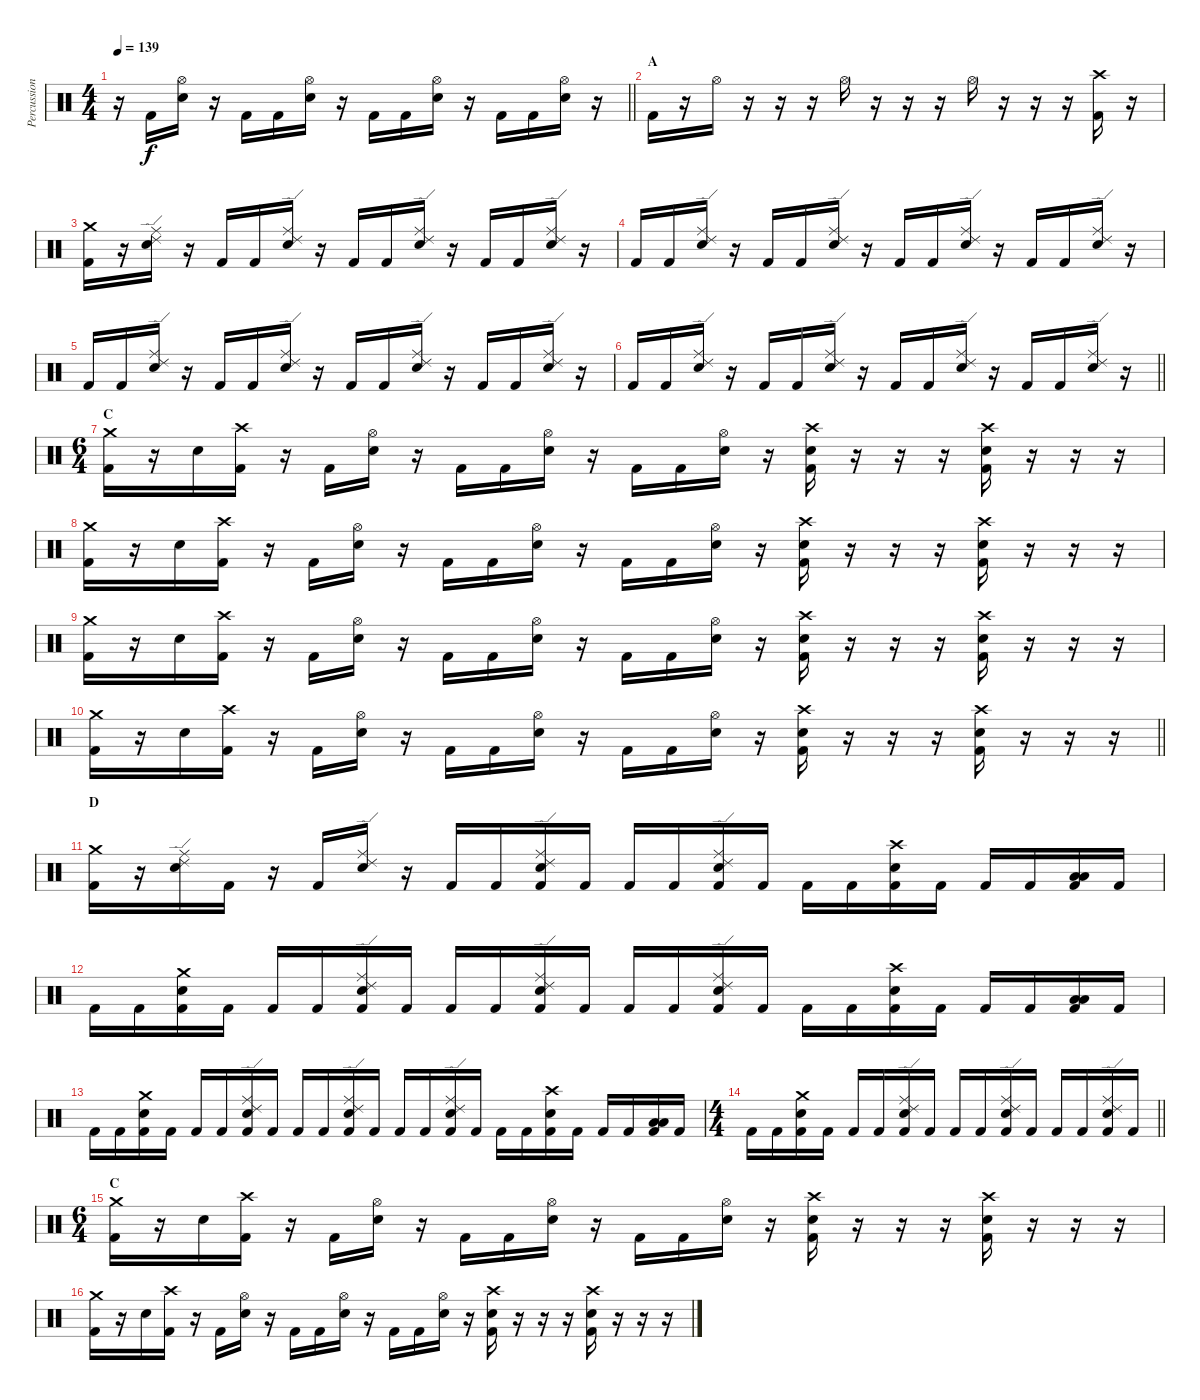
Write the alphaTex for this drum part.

\track ("Percussion" "Percussion") {instrument percussion}
\staff {score}
\articulation defaults
\ts (4 4)
\tempo 139
\clef neutral
\barLineRight lightlight
\ks c
r.16{dy f} "Kick (hit) 2".16 ("Hi-Hat (open)" "Electric Snare (hit)").16 r.16 "Kick (hit) 2".16 "Kick (hit) 2".16 ("Hi-Hat (open)" "Electric Snare (hit)").16 r.16 "Kick (hit) 2".16 "Kick (hit) 2".16 ("Hi-Hat (open)" "Electric Snare (hit)").16 r.16 "Kick (hit) 2".16 "Kick (hit) 2".16 ("Hi-Hat (open)" "Electric Snare (hit)").16 r.16 |
\section ("" "A")
"Kick (hit) 2".16 r.16 "Hi-Hat (open)".16 r.16 r.16 r.16 "Hi-Hat (open)".16 r.16 r.16 r.16 "Hi-Hat (open)".16 r.16 r.16 r.16 ("Crash high (hit)" "Kick (hit) 2").16 r.16 |
("Crash medium (hit)" "Kick (hit) 2").16 r.16 ("Ride (middle)" "Ride (edge) 2" "Electric Snare (hit)").16 r.16 "Kick (hit) 2".16 "Kick (hit) 2".16 ("Ride (middle)" "Ride (edge) 2" "Electric Snare (hit)").16 r.16 "Kick (hit) 2".16 "Kick (hit) 2".16 ("Ride (middle)" "Ride (edge) 2" "Electric Snare (hit)").16 r.16 "Kick (hit) 2".16 "Kick (hit) 2".16 ("Ride (middle)" "Ride (edge) 2" "Electric Snare (hit)").16 r.16 |
"Kick (hit) 2".16 "Kick (hit) 2".16 ("Ride (middle)" "Ride (edge) 2" "Electric Snare (hit)").16 r.16 "Kick (hit) 2".16 "Kick (hit) 2".16 ("Ride (middle)" "Ride (edge) 2" "Electric Snare (hit)").16 r.16 "Kick (hit) 2".16 "Kick (hit) 2".16 ("Ride (middle)" "Ride (edge) 2" "Electric Snare (hit)").16 r.16 "Kick (hit) 2".16 "Kick (hit) 2".16 ("Ride (middle)" "Ride (edge) 2" "Electric Snare (hit)").16 r.16 |
"Kick (hit) 2".16 "Kick (hit) 2".16 ("Ride (middle)" "Ride (edge) 2" "Electric Snare (hit)").16 r.16 "Kick (hit) 2".16 "Kick (hit) 2".16 ("Ride (middle)" "Ride (edge) 2" "Electric Snare (hit)").16 r.16 "Kick (hit) 2".16 "Kick (hit) 2".16 ("Ride (middle)" "Ride (edge) 2" "Electric Snare (hit)").16 r.16 "Kick (hit) 2".16 "Kick (hit) 2".16 ("Ride (middle)" "Ride (edge) 2" "Electric Snare (hit)").16 r.16 |
\barLineRight lightlight "Kick (hit) 2".16 "Kick (hit) 2".16
("Ride (middle)" "Ride (edge) 2" "Electric Snare (hit)").16 r.16 "Kick (hit) 2".16 "Kick (hit) 2".16 ("Ride (middle)" "Ride (edge) 2" "Electric Snare (hit)").16 r.16 "Kick (hit) 2".16 "Kick (hit) 2".16 ("Ride (middle)" "Ride (edge) 2" "Electric Snare (hit)").16 r.16 "Kick (hit) 2".16 "Kick (hit) 2".16 ("Ride (middle)" "Ride (edge) 2" "Electric Snare (hit)").16 r.16 |
\ts (6 4)
\section ("" "C")
("Crash medium (hit)" "Kick (hit) 2").16 r.16 "Electric Snare (hit)".16 ("Crash high (hit)" "Kick (hit) 2").16 r.16 "Kick (hit) 2".16 ("Hi-Hat (open)" "Electric Snare (hit)").16 r.16 "Kick (hit) 2".16 "Kick (hit) 2".16 ("Hi-Hat (open)" "Electric Snare (hit)").16 r.16 "Kick (hit) 2".16 "Kick (hit) 2".16 ("Hi-Hat (open)" "Electric Snare (hit)").16 r.16 ("Crash high (hit)" "Electric Snare (hit)" "Kick (hit) 2").16 r.16 r.16 r.16 ("Crash high (hit)" "Electric Snare (hit)" "Kick (hit) 2").16 r.16 r.16 r.16 |
("Crash medium (hit)" "Kick (hit) 2").16 r.16 "Electric Snare (hit)".16 ("Crash high (hit)" "Kick (hit) 2").16 r.16 "Kick (hit) 2".16 ("Hi-Hat (open)" "Electric Snare (hit)").16 r.16 "Kick (hit) 2".16 "Kick (hit) 2".16 ("Hi-Hat (open)" "Electric Snare (hit)").16 r.16 "Kick (hit) 2".16 "Kick (hit) 2".16 ("Hi-Hat (open)" "Electric Snare (hit)").16 r.16 ("Crash high (hit)" "Electric Snare (hit)" "Kick (hit) 2").16 r.16 r.16 r.16 ("Crash high (hit)" "Electric Snare (hit)" "Kick (hit) 2").16 r.16 r.16 r.16 |
("Crash medium (hit)" "Kick (hit) 2").16 r.16 "Electric Snare (hit)".16 ("Crash high (hit)" "Kick (hit) 2").16 r.16 "Kick (hit) 2".16 ("Hi-Hat (open)" "Electric Snare (hit)").16 r.16 "Kick (hit) 2".16 "Kick (hit) 2".16 ("Hi-Hat (open)" "Electric Snare (hit)").16 r.16 "Kick (hit) 2".16 "Kick (hit) 2".16 ("Hi-Hat (open)" "Electric Snare (hit)").16 r.16 ("Crash high (hit)" "Electric Snare (hit)" "Kick (hit) 2").16 r.16 r.16 r.16 ("Crash high (hit)" "Electric Snare (hit)" "Kick (hit) 2").16 r.16 r.16 r.16 |
\barLineRight lightlight
("Crash medium (hit)" "Kick (hit) 2").16 r.16 "Electric Snare (hit)".16 ("Crash high (hit)" "Kick (hit) 2").16 r.16 "Kick (hit) 2".16 ("Hi-Hat (open)" "Electric Snare (hit)").16 r.16 "Kick (hit) 2".16 "Kick (hit) 2".16 ("Hi-Hat (open)" "Electric Snare (hit)").16 r.16 "Kick (hit) 2".16 "Kick (hit) 2".16 ("Hi-Hat (open)" "Electric Snare (hit)").16 r.16 ("Crash high (hit)" "Electric Snare (hit)" "Kick (hit) 2").16 r.16 r.16 r.16 ("Crash high (hit)" "Electric Snare (hit)" "Kick (hit) 2").16 r.16 r.16 r.16 |
\section ("" "D")
("Crash medium (hit)" "Kick (hit) 2").16 r.16 ("Ride (middle)" "Ride (edge) 2" "Electric Snare (hit)").16 "Kick (hit) 2".16 r.16 "Kick (hit) 2".16 ("Ride (middle)" "Ride (edge) 2" "Electric Snare (hit)").16 r.16 "Kick (hit) 2".16 "Kick (hit) 2".16 ("Ride (middle)" "Ride (edge) 2" "Electric Snare (hit)" "Kick (hit) 2").16 "Kick (hit) 2".16 "Kick (hit) 2".16 "Kick (hit) 2".16 ("Ride (middle)" "Ride (edge) 2" "Electric Snare (hit)" "Kick (hit) 2").16 "Kick (hit) 2".16 "Kick (hit) 2".16 "Kick (hit) 2".16 ("Crash high (hit)" "Electric Snare (hit)" "Kick (hit) 2").16 "Kick (hit) 2".16 "Kick (hit) 2".16 "Kick (hit) 2".16 ("Low Tom (hit)" "Low Floor Tom (hit)" "Kick (hit) 2").16 "Kick (hit) 2".16 |
"Kick (hit) 2".16 "Kick (hit) 2".16 ("Crash medium (hit)" "Electric Snare (hit)" "Kick (hit) 2").16 "Kick (hit) 2".16 "Kick (hit) 2".16 "Kick (hit) 2".16 ("Ride (middle)" "Ride (edge) 2" "Electric Snare (hit)" "Kick (hit) 2").16 "Kick (hit) 2".16 "Kick (hit) 2".16 "Kick (hit) 2".16 ("Ride (middle)" "Ride (edge) 2" "Electric Snare (hit)" "Kick (hit) 2").16 "Kick (hit) 2".16 "Kick (hit) 2".16 "Kick (hit) 2".16 ("Ride (middle)" "Ride (edge) 2" "Electric Snare (hit)" "Kick (hit) 2").16 "Kick (hit) 2".16 "Kick (hit) 2".16 "Kick (hit) 2".16 ("Crash high (hit)" "Electric Snare (hit)" "Kick (hit) 2").16 "Kick (hit) 2".16 "Kick (hit) 2".16 "Kick (hit) 2".16 ("Low Tom (hit)" "Low Floor Tom (hit)" "Kick (hit) 2").16 "Kick (hit) 2".16 |
"Kick (hit) 2".16 "Kick (hit) 2".16 ("Crash medium (hit)" "Electric Snare (hit)" "Kick (hit) 2").16 "Kick (hit) 2".16 "Kick (hit) 2".16 "Kick (hit) 2".16 ("Ride (middle)" "Ride (edge) 2" "Electric Snare (hit)" "Kick (hit) 2").16 "Kick (hit) 2".16 "Kick (hit) 2".16 "Kick (hit) 2".16 ("Ride (middle)" "Ride (edge) 2" "Electric Snare (hit)" "Kick (hit) 2").16 "Kick (hit) 2".16 "Kick (hit) 2".16 "Kick (hit) 2".16 ("Ride (middle)" "Ride (edge) 2" "Electric Snare (hit)" "Kick (hit) 2").16 "Kick (hit) 2".16 "Kick (hit) 2".16 "Kick (hit) 2".16 ("Crash high (hit)" "Electric Snare (hit)" "Kick (hit) 2").16 "Kick (hit) 2".16 "Kick (hit) 2".16 "Kick (hit) 2".16 ("Low Tom (hit)" "Low Floor Tom (hit)" "Kick (hit) 2").16 "Kick (hit) 2".16 |
\ts (4 4)
\barLineRight lightlight "Kick (hit) 2".16 "Kick (hit) 2".16
("Crash medium (hit)" "Electric Snare (hit)" "Kick (hit) 2").16 "Kick (hit) 2".16 "Kick (hit) 2".16 "Kick (hit) 2".16 ("Ride (middle)" "Ride (edge) 2" "Electric Snare (hit)" "Kick (hit) 2").16 "Kick (hit) 2".16 "Kick (hit) 2".16 "Kick (hit) 2".16 ("Ride (middle)" "Ride (edge) 2" "Electric Snare (hit)" "Kick (hit) 2").16 "Kick (hit) 2".16 "Kick (hit) 2".16 "Kick (hit) 2".16 ("Ride (middle)" "Ride (edge) 2" "Electric Snare (hit)" "Kick (hit) 2").16 "Kick (hit) 2".16 |
\ts (6 4)
\section ("" "C")
("Crash medium (hit)" "Kick (hit) 2").16 r.16 "Electric Snare (hit)".16 ("Crash high (hit)" "Kick (hit) 2").16 r.16 "Kick (hit) 2".16 ("Hi-Hat (open)" "Electric Snare (hit)").16 r.16 "Kick (hit) 2".16 "Kick (hit) 2".16 ("Hi-Hat (open)" "Electric Snare (hit)").16 r.16 "Kick (hit) 2".16 "Kick (hit) 2".16 ("Hi-Hat (open)" "Electric Snare (hit)").16 r.16 ("Crash high (hit)" "Electric Snare (hit)" "Kick (hit) 2").16 r.16 r.16 r.16 ("Crash high (hit)" "Electric Snare (hit)" "Kick (hit) 2").16 r.16 r.16 r.16 |
("Crash medium (hit)" "Kick (hit) 2").16 r.16 "Electric Snare (hit)".16 ("Crash high (hit)" "Kick (hit) 2").16 r.16 "Kick (hit) 2".16 ("Hi-Hat (open)" "Electric Snare (hit)").16 r.16 "Kick (hit) 2".16 "Kick (hit) 2".16 ("Hi-Hat (open)" "Electric Snare (hit)").16 r.16 "Kick (hit) 2".16 "Kick (hit) 2".16 ("Hi-Hat (open)" "Electric Snare (hit)").16 r.16 ("Crash high (hit)" "Electric Snare (hit)" "Kick (hit) 2").16 r.16 r.16 r.16 ("Crash high (hit)" "Electric Snare (hit)" "Kick (hit) 2").16 r.16 r.16 r.16
